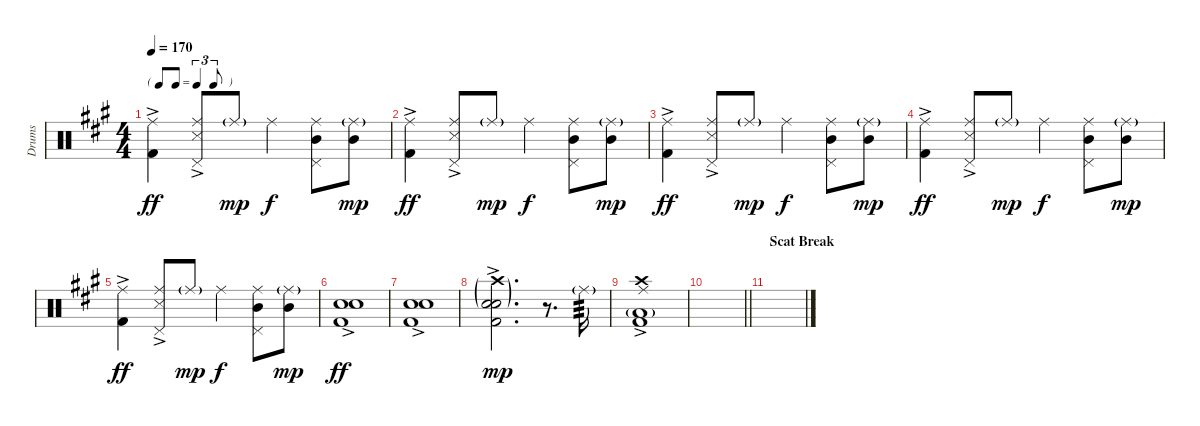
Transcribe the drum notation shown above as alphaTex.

\track ("Drums" "Drums") {instrument percussion}
\staff {score}
\articulation defaults
\ts (4 4)
\tf triplet8th
\tempo 170
\clef neutral
\ks a
("Kick (hit) 2"{ac} "Ride (middle)").4{dy ff} ("Snare (side stick) 3"{ac} "Pedal Hi-Hat (hit)" "Ride (middle)").8 "Ride (middle)"{g}.8{dy mp} "Ride (middle)".4{dy f} ("Mid Tom (hit)" "Pedal Hi-Hat (hit)" "Ride (middle)").8 ("Mid Tom (hit)" "Ride (middle)"{g}).8{dy mp} |
("Kick (hit) 2"{ac} "Ride (middle)").4{dy ff} ("Snare (side stick) 3"{ac} "Pedal Hi-Hat (hit)" "Ride (middle)").8 "Ride (middle)"{g}.8{dy mp} "Ride (middle)".4{dy f} ("Mid Tom (hit)" "Pedal Hi-Hat (hit)" "Ride (middle)").8 ("Mid Tom (hit)" "Ride (middle)"{g}).8{dy mp} |
("Kick (hit) 2"{ac} "Ride (middle)").4{dy ff} ("Snare (side stick) 3"{ac} "Pedal Hi-Hat (hit)" "Ride (middle)").8 "Ride (middle)"{g}.8{dy mp} "Ride (middle)".4{dy f} ("Mid Tom (hit)" "Pedal Hi-Hat (hit)" "Ride (middle)").8 ("Mid Tom (hit)" "Ride (middle)"{g}).8{dy mp} |
("Kick (hit) 2"{ac} "Ride (middle)").4{dy ff} ("Snare (side stick) 3"{ac} "Pedal Hi-Hat (hit)" "Ride (middle)").8 "Ride (middle)"{g}.8{dy mp} "Ride (middle)".4{dy f} ("Mid Tom (hit)" "Pedal Hi-Hat (hit)" "Ride (middle)").8 ("Mid Tom (hit)" "Ride (middle)"{g}).8{dy mp} |
("Kick (hit) 2"{ac} "Ride (middle)").4{dy ff} ("Snare (side stick) 3"{ac} "Pedal Hi-Hat (hit)" "Ride (middle)").8 "Ride (middle)"{g}.8{dy mp} "Ride (middle)".4{dy f} ("Mid Tom (hit)" "Pedal Hi-Hat (hit)" "Ride (middle)").8 ("Mid Tom (hit)" "Ride (middle)"{g}).8{dy mp} |
("Kick (hit) 2"{ac} "Electric Snare (hit)"{ac} "Snare (hit) 2").1{dy ff} |
("Kick (hit) 2"{ac} "Electric Snare (hit)"{ac} "Snare (hit) 2").1 |
("Kick (hit) 2"{ac} "Electric Snare (hit)"{g} "Snare (hit) 2"{g} "Crash high (hit)"{g}).2{d dy mp} r.8{d} "Ride (middle)"{g}.16{tp 3} |
("Kick (hit) 2"{ac} "Low Tom (hit)"{g} "Ride (middle)" "Crash high (hit)").1 |
\barLineRight lightlight
|
\section ("" "Scat Break")
